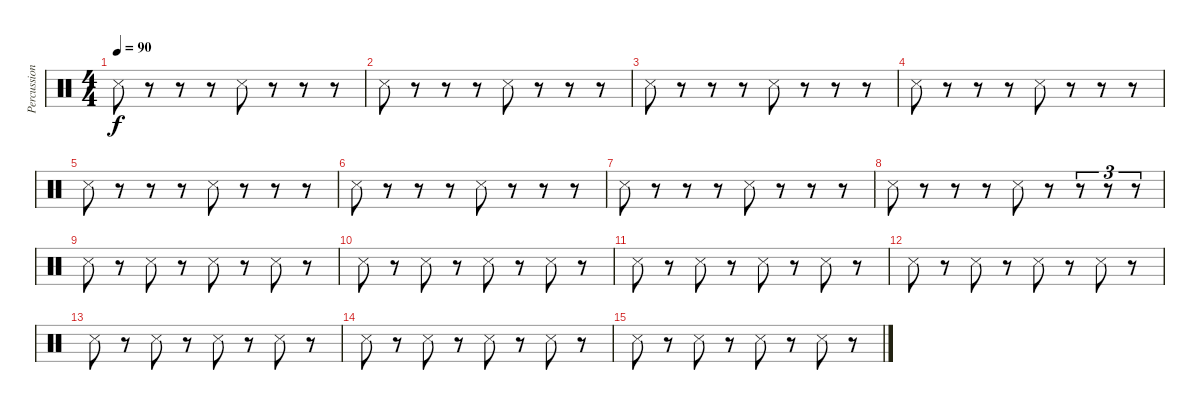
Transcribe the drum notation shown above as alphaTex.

\track ("Percussions" "Percussion") {instrument percussion}
\staff {score}
\articulation defaults
\ts (4 4)
\tempo 90
\clef neutral
\ks c "Metronome (hit)".8{dy f}
r.8 r.8 r.8 "Metronome (hit)".8 r.8 r.8 r.8 |
"Metronome (hit)".8 r.8 r.8 r.8 "Metronome (hit)".8 r.8 r.8 r.8 |
"Metronome (hit)".8 r.8 r.8 r.8 "Metronome (hit)".8 r.8 r.8 r.8 |
"Metronome (hit)".8 r.8 r.8 r.8 "Metronome (hit)".8 r.8 r.8 r.8 |
"Metronome (hit)".8 r.8 r.8 r.8 "Metronome (hit)".8 r.8 r.8 r.8 |
"Metronome (hit)".8 r.8 r.8 r.8 "Metronome (hit)".8 r.8 r.8 r.8 |
"Metronome (hit)".8 r.8 r.8 r.8 "Metronome (hit)".8 r.8 r.8 r.8 |
"Metronome (hit)".8 r.8 r.8 r.8 "Metronome (hit)".8 r.8 r.8{tu (3 2)} r.8{tu (3 2)} r.8{tu (3 2)} |
"Metronome (hit)".8 r.8 "Metronome (hit)".8 r.8 "Metronome (hit)".8 r.8 "Metronome (hit)".8 r.8 |
"Metronome (hit)".8 r.8 "Metronome (hit)".8 r.8 "Metronome (hit)".8 r.8 "Metronome (hit)".8 r.8 |
"Metronome (hit)".8 r.8 "Metronome (hit)".8 r.8 "Metronome (hit)".8 r.8 "Metronome (hit)".8 r.8 |
"Metronome (hit)".8 r.8 "Metronome (hit)".8 r.8 "Metronome (hit)".8 r.8 "Metronome (hit)".8 r.8 |
"Metronome (hit)".8 r.8 "Metronome (hit)".8 r.8 "Metronome (hit)".8 r.8 "Metronome (hit)".8 r.8 |
"Metronome (hit)".8 r.8 "Metronome (hit)".8 r.8 "Metronome (hit)".8 r.8 "Metronome (hit)".8 r.8 |
"Metronome (hit)".8 r.8 "Metronome (hit)".8 r.8 "Metronome (hit)".8 r.8 "Metronome (hit)".8 r.8
